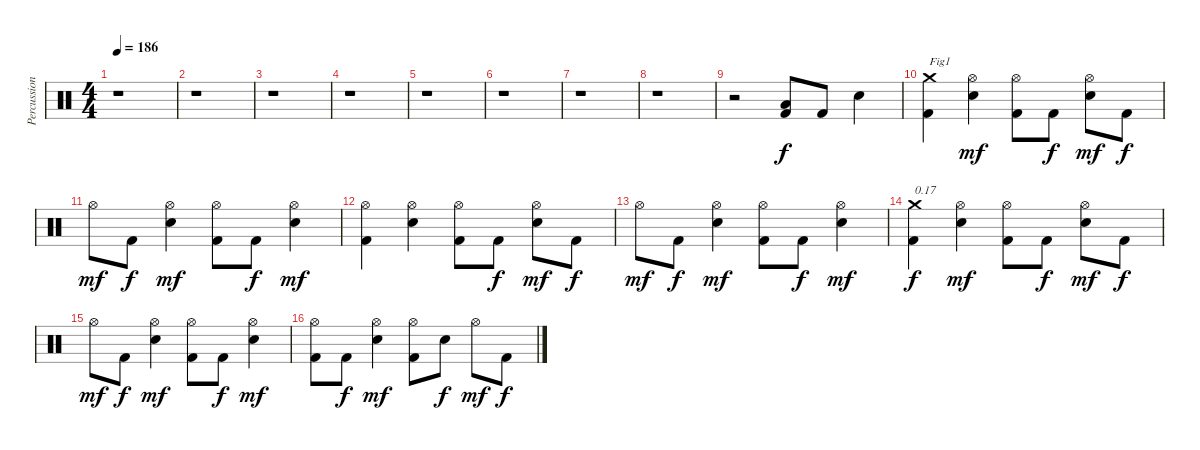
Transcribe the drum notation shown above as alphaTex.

\track ("Percussions" "Percussion") {instrument percussion}
\staff {score}
\articulation defaults
\ts (4 4)
\tempo 186
\clef neutral
\ks c
r.1{dy f} |
r.1 |
r.1 |
r.1 |
r.1 |
r.1 |
r.1 |
r.1 |
r.2 ("Kick (hit) 2" "Low Floor Tom (hit)").8 "Kick (hit) 2".8 "Electric Snare (hit)".4 |
("Kick (hit) 2" "Crash medium (hit)").4{txt "Fig1"} ("Electric Snare (hit)" "Hi-Hat (open)").4{dy mf} ("Kick (hit) 2" "Hi-Hat (open)").8 "Kick (hit) 2".8{dy f} ("Electric Snare (hit)" "Hi-Hat (open)").8{dy mf} "Kick (hit) 2".8{dy f} |
"Hi-Hat (open)".8{dy mf} "Kick (hit) 2".8{dy f} ("Electric Snare (hit)" "Hi-Hat (open)").4{dy mf} ("Kick (hit) 2" "Hi-Hat (open)").8 "Kick (hit) 2".8{dy f} ("Electric Snare (hit)" "Hi-Hat (open)").4{dy mf} |
("Kick (hit) 2" "Hi-Hat (open)").4 ("Electric Snare (hit)" "Hi-Hat (open)").4 ("Kick (hit) 2" "Hi-Hat (open)").8 "Kick (hit) 2".8{dy f} ("Electric Snare (hit)" "Hi-Hat (open)").8{dy mf} "Kick (hit) 2".8{dy f} |
"Hi-Hat (open)".8{dy mf} "Kick (hit) 2".8{dy f} ("Electric Snare (hit)" "Hi-Hat (open)").4{dy mf} ("Kick (hit) 2" "Hi-Hat (open)").8 "Kick (hit) 2".8{dy f} ("Electric Snare (hit)" "Hi-Hat (open)").4{dy mf} |
("Kick (hit) 2" "Crash medium (hit)").4{txt "0.17" dy f} ("Electric Snare (hit)" "Hi-Hat (open)").4{dy mf} ("Kick (hit) 2" "Hi-Hat (open)").8 "Kick (hit) 2".8{dy f} ("Electric Snare (hit)" "Hi-Hat (open)").8{dy mf} "Kick (hit) 2".8{dy f} |
"Hi-Hat (open)".8{dy mf} "Kick (hit) 2".8{dy f} ("Electric Snare (hit)" "Hi-Hat (open)").4{dy mf} ("Kick (hit) 2" "Hi-Hat (open)").8 "Kick (hit) 2".8{dy f} ("Electric Snare (hit)" "Hi-Hat (open)").4{dy mf} |
("Kick (hit) 2" "Hi-Hat (open)").8 "Kick (hit) 2".8{dy f} ("Electric Snare (hit)" "Hi-Hat (open)").4{dy mf} ("Kick (hit) 2" "Hi-Hat (open)").8 "Electric Snare (hit)".8{dy f} "Hi-Hat (open)".8{dy mf} "Kick (hit) 2".8{dy f}
